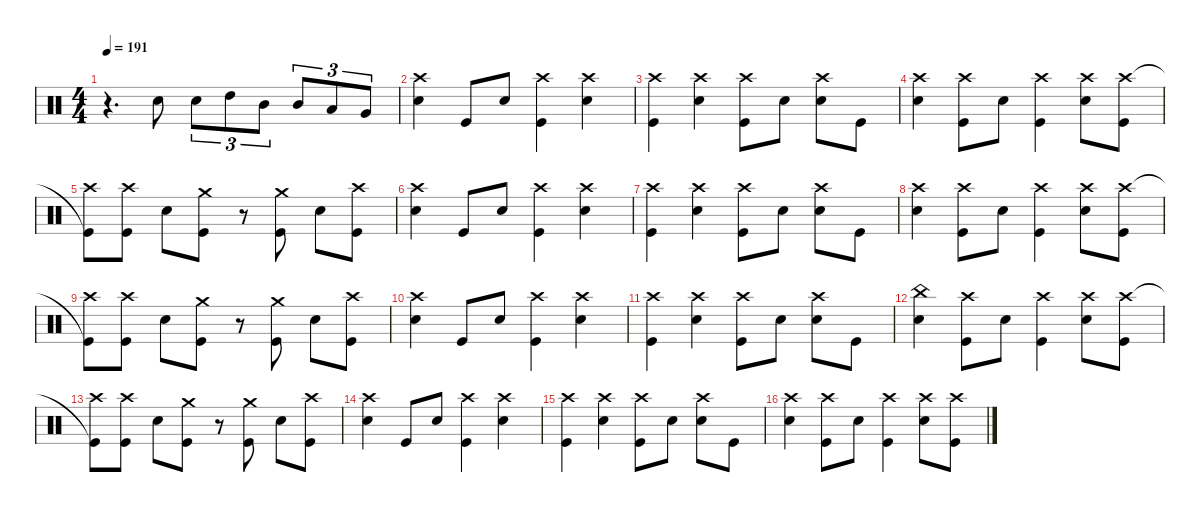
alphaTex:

\defaultSystemsLayout 4
\hideDynamics
\bracketExtendMode nobrackets
\singleTrackTrackNamePolicy hidden
\multiTrackTrackNamePolicy hidden
\firstSystemTrackNameMode fullname
\firstSystemTrackNameOrientation horizontal
\otherSystemsTrackNameOrientation horizontal
\track ("Drumkit" "drm.") {instrument percussion}
\staff {score}
\articulation defaults
\ts (4 4)
\tempo 191
\clef neutral
\ks c
r.4{d dy ff beam Down} "Snare (hit) 2".8{dy mp beam Down} "Snare (hit) 2".8{tu (3 2) dy f beam Down} "High Tom (hit)".8{tu (3 2) beam Down} "Mid Tom (hit)".8{tu (3 2) beam Down} "Mid Tom (hit)".8{tu (3 2) beam Up} "Low Tom (hit)".8{tu (3 2) beam Up} "Very Low Tom (hit)".8{tu (3 2) beam Up} |
("Crash high (hit)" "Snare (hit) 2").4{dy mf beam Down} "Kick (hit)".8{dy f beam Up} "Snare (hit) 2".8{dy mf beam Up} ("Crash high (hit)" "Kick (hit)").4{dy mp beam Down} ("Crash high (hit)" "Snare (hit) 2").4{dy mf beam Down} |
("Crash high (hit)" "Kick (hit)").4{beam Down} ("Crash high (hit)" "Snare (hit) 2").4{beam Down} ("Crash high (hit)" "Kick (hit)").8{beam Down} "Snare (hit) 2".8{dy mp beam Down} ("Crash high (hit)" "Snare (hit) 2").8{dy mf beam Down} "Kick (hit)".8{dy f beam Down} |
("Crash high (hit)" "Snare (hit) 2").4{dy mf beam Down} ("Crash high (hit)" "Kick (hit)").8{beam Down} "Snare (hit) 2".8{dy f beam Down} ("Crash high (hit)" "Kick (hit)").4{dy mf beam Down} ("Crash high (hit)" "Snare (hit) 2").8{beam Down} ("Crash high (hit)" "Kick (hit)").8{beam Down} |
("Kick (hit)"{t} "Crash high (hit)").8{dy f beam Down} ("Crash high (hit)" "Kick (hit)").8{beam Down} "Snare (hit) 2".8{beam Down} ("Crash medium (hit)" "Kick (hit)").8{beam Down} r.8{beam Down} ("Crash medium (hit)" "Kick (hit)").8{beam Down} "Snare (hit) 2".8{beam Down} ("Crash high (hit)" "Kick (hit)").8{beam Down} |
("Crash high (hit)" "Snare (hit) 2").4{dy mf beam Down} "Kick (hit)".8{dy f beam Up} "Snare (hit) 2".8{dy mf beam Up} ("Crash high (hit)" "Kick (hit)").4{dy mp beam Down} ("Crash high (hit)" "Snare (hit) 2").4{dy mf beam Down} |
("Crash high (hit)" "Kick (hit)").4{beam Down} ("Crash high (hit)" "Snare (hit) 2").4{beam Down} ("Crash high (hit)" "Kick (hit)").8{beam Down} "Snare (hit) 2".8{dy mp beam Down} ("Crash high (hit)" "Snare (hit) 2").8{dy mf beam Down} "Kick (hit)".8{dy f beam Down} |
("Crash high (hit)" "Snare (hit) 2").4{dy mf beam Down} ("Crash high (hit)" "Kick (hit)").8{beam Down} "Snare (hit) 2".8{dy f beam Down} ("Crash high (hit)" "Kick (hit)").4{dy mf beam Down} ("Crash high (hit)" "Snare (hit) 2").8{beam Down} ("Crash high (hit)" "Kick (hit)").8{beam Down} |
("Kick (hit)"{t} "Crash high (hit)").8{dy f beam Down} ("Crash high (hit)" "Kick (hit)").8{beam Down} "Snare (hit) 2".8{beam Down} ("Crash medium (hit)" "Kick (hit)").8{beam Down} r.8{beam Down} ("Crash medium (hit)" "Kick (hit)").8{beam Down} "Snare (hit) 2".8{beam Down} ("Crash high (hit)" "Kick (hit)").8{beam Down} |
("Crash high (hit)" "Snare (hit) 2").4{dy mf beam Down} "Kick (hit)".8{dy f beam Up} "Snare (hit) 2".8{dy mf beam Up} ("Crash high (hit)" "Kick (hit)").4{dy mp beam Down} ("Crash high (hit)" "Snare (hit) 2").4{dy mf beam Down} |
("Crash high (hit)" "Kick (hit)").4{beam Down} ("Crash high (hit)" "Snare (hit) 2").4{beam Down} ("Crash high (hit)" "Kick (hit)").8{beam Down} "Snare (hit) 2".8{dy mp beam Down} ("Crash high (hit)" "Snare (hit) 2").8{dy mf beam Down} "Kick (hit)".8{dy f beam Down} |
("China (hit)" "Snare (hit) 2").4{dy mf beam Down} ("Crash high (hit)" "Kick (hit)").8{beam Down} "Snare (hit) 2".8{dy f beam Down} ("Crash high (hit)" "Kick (hit)").4{dy mf beam Down} ("Crash high (hit)" "Snare (hit) 2").8{beam Down} ("Crash high (hit)" "Kick (hit)").8{beam Down} |
("Kick (hit)"{t} "Crash high (hit)").8{dy f beam Down} ("Crash high (hit)" "Kick (hit)").8{beam Down} "Snare (hit) 2".8{beam Down} ("Crash medium (hit)" "Kick (hit)").8{beam Down} r.8{beam Down} ("Crash medium (hit)" "Kick (hit)").8{beam Down} "Snare (hit) 2".8{beam Down} ("Crash high (hit)" "Kick (hit)").8{beam Down} |
("Crash high (hit)" "Snare (hit) 2").4{dy mf beam Down} "Kick (hit)".8{dy f beam Up} "Snare (hit) 2".8{dy mf beam Up} ("Crash high (hit)" "Kick (hit)").4{dy mp beam Down} ("Crash high (hit)" "Snare (hit) 2").4{dy mf beam Down} |
("Crash high (hit)" "Kick (hit)").4{beam Down} ("Crash high (hit)" "Snare (hit) 2").4{beam Down} ("Crash high (hit)" "Kick (hit)").8{beam Down} "Snare (hit) 2".8{dy mp beam Down} ("Crash high (hit)" "Snare (hit) 2").8{dy mf beam Down} "Kick (hit)".8{dy f beam Down} |
("Crash high (hit)" "Snare (hit) 2").4{dy mf beam Down} ("Crash high (hit)" "Kick (hit)").8{beam Down} "Snare (hit) 2".8{dy f beam Down} ("Crash high (hit)" "Kick (hit)").4{dy mf beam Down} ("Crash high (hit)" "Snare (hit) 2").8{beam Down} ("Crash high (hit)" "Kick (hit)").8{beam Down}
